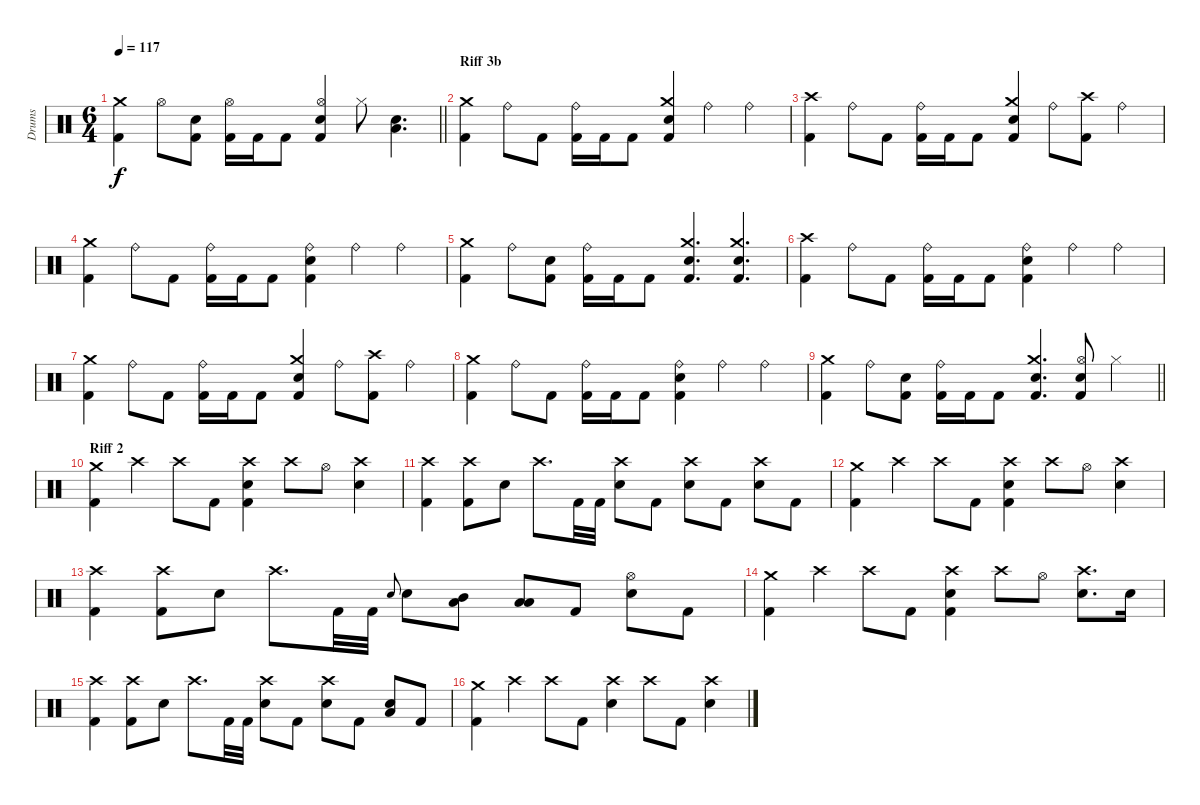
\track ("Drums" "Drums") {instrument percussion}
\staff {score}
\articulation defaults
\ts (6 4)
\tempo 117
\clef neutral
\barLineRight lightlight
\ks c
("Kick (hit) 2" "Crash medium (hit)").4{dy f} "Hi-Hat (open)".8 ("Electric Snare (hit)" "Kick (hit) 2").8 ("Hi-Hat (open)" "Kick (hit) 2").16 "Kick (hit) 2".16 "Kick (hit) 2".8 ("Hi-Hat (open)" "Kick (hit) 2" "Electric Snare (hit)").4 "Hi-Hat (closed)".8 ("Electric Snare (hit)" "Low Floor Tom (hit)").4{d} |
\section ("" "Riff 3b")
("Kick (hit) 2" "Crash medium (hit)").4 "Ride (bell)".8 "Kick (hit) 2".8 ("Ride (bell)" "Kick (hit) 2").16 "Kick (hit) 2".16 "Kick (hit) 2".8 ("Electric Snare (hit)" "Kick (hit) 2" "Crash medium (hit)").4 "Ride (bell)".4 "Ride (bell)".4 |
("Kick (hit) 2" "Crash high (hit)").4 "Ride (bell)".8 "Kick (hit) 2".8 ("Ride (bell)" "Kick (hit) 2").16 "Kick (hit) 2".16 "Kick (hit) 2".8 ("Crash medium (hit)" "Kick (hit) 2" "Electric Snare (hit)").4 "Ride (bell)".8 ("Kick (hit) 2" "Crash high (hit)").8 "Ride (bell)".4 |
("Kick (hit) 2" "Crash medium (hit)").4 "Ride (bell)".8 "Kick (hit) 2".8 ("Ride (bell)" "Kick (hit) 2").16 "Kick (hit) 2".16 "Kick (hit) 2".8 ("Electric Snare (hit)" "Kick (hit) 2" "Ride (bell)").4 "Ride (bell)".4 "Ride (bell)".4 |
("Kick (hit) 2" "Crash medium (hit)").4 "Ride (bell)".8 ("Electric Snare (hit)" "Kick (hit) 2").8 ("Ride (bell)" "Kick (hit) 2").16 "Kick (hit) 2".16 "Kick (hit) 2".8 ("Crash medium (hit)" "Kick (hit) 2" "Electric Snare (hit)").4{d} ("Crash medium (hit)" "Kick (hit) 2" "Electric Snare (hit)").4{d} |
("Kick (hit) 2" "Crash high (hit)").4 "Ride (bell)".8 "Kick (hit) 2".8 ("Ride (bell)" "Kick (hit) 2").16 "Kick (hit) 2".16 "Kick (hit) 2".8 ("Electric Snare (hit)" "Kick (hit) 2" "Ride (bell)").4 "Ride (bell)".4 "Ride (bell)".4 |
("Kick (hit) 2" "Crash medium (hit)").4 "Ride (bell)".8 "Kick (hit) 2".8 ("Ride (bell)" "Kick (hit) 2").16 "Kick (hit) 2".16 "Kick (hit) 2".8 ("Crash medium (hit)" "Kick (hit) 2" "Electric Snare (hit)").4 "Ride (bell)".8 ("Kick (hit) 2" "Crash high (hit)").8 "Ride (bell)".4 |
("Kick (hit) 2" "Crash medium (hit)").4 "Ride (bell)".8 "Kick (hit) 2".8 ("Ride (bell)" "Kick (hit) 2").16 "Kick (hit) 2".16 "Kick (hit) 2".8 ("Electric Snare (hit)" "Kick (hit) 2" "Ride (bell)").4 "Ride (bell)".4 "Ride (bell)".4 |
\barLineRight lightlight
("Kick (hit) 2" "Crash medium (hit)").4 "Ride (bell)".8 ("Electric Snare (hit)" "Kick (hit) 2").8 ("Ride (bell)" "Kick (hit) 2").16 "Kick (hit) 2".16 "Kick (hit) 2".8 ("Kick (hit) 2" "Crash medium (hit)" "Electric Snare (hit)").4{d} ("Electric Snare (hit)" "Kick (hit) 2" "Hi-Hat (open)").8 "Hi-Hat (closed)".4 |
\section ("" "Riff 2")
("Kick (hit) 2" "Crash medium (hit)").4 "Crash high (hit)".4 "Crash high (hit)".8 "Kick (hit) 2".8 ("Crash high (hit)" "Kick (hit) 2" "Electric Snare (hit)").4 "Crash high (hit)".8 "Hi-Hat (open)".8 ("Electric Snare (hit)" "Crash high (hit)").4 |
("Kick (hit) 2" "Crash high (hit)").4 ("Kick (hit) 2" "Crash high (hit)").8 "Electric Snare (hit)".8 "Crash high (hit)".8{d} "Kick (hit) 2".32 "Kick (hit) 2".32 ("Electric Snare (hit)" "Crash high (hit)").8 "Kick (hit) 2".8 ("Electric Snare (hit)" "Crash high (hit)").8 "Kick (hit) 2".8 ("Electric Snare (hit)" "Crash high (hit)").8 "Kick (hit) 2".8 |
("Kick (hit) 2" "Crash medium (hit)").4 "Crash high (hit)".4 "Crash high (hit)".8 "Kick (hit) 2".8 ("Crash high (hit)" "Kick (hit) 2" "Electric Snare (hit)").4 "Crash high (hit)".8 "Hi-Hat (open)".8 ("Electric Snare (hit)" "Crash high (hit)").4 |
("Kick (hit) 2" "Crash high (hit)").4 ("Kick (hit) 2" "Crash high (hit)").8 "Electric Snare (hit)".8 "Crash high (hit)".8{d} "Kick (hit) 2".32 "Kick (hit) 2".32 "Electric Snare (hit)".8{gr onbeat} "Electric Snare (hit)".8 ("Mid Tom (hit)" "Low Floor Tom (hit)").8 ("Low Tom (hit)" "Low Floor Tom (hit)").8 "Kick (hit) 2".8 ("Electric Snare (hit)" "Hi-Hat (open)").8 "Kick (hit) 2".8 |
("Kick (hit) 2" "Crash medium (hit)").4 "Crash high (hit)".4 "Crash high (hit)".8 "Kick (hit) 2".8 ("Crash high (hit)" "Kick (hit) 2" "Electric Snare (hit)").4 "Crash high (hit)".8 "Hi-Hat (open)".8 ("Electric Snare (hit)" "Crash high (hit)").8{d} "Electric Snare (hit)".16 |
("Kick (hit) 2" "Crash high (hit)").4 ("Kick (hit) 2" "Crash high (hit)").8 "Electric Snare (hit)".8 "Crash high (hit)".8{d} "Kick (hit) 2".32 "Kick (hit) 2".32 ("Electric Snare (hit)" "Crash high (hit)").8 "Kick (hit) 2".8 ("Electric Snare (hit)" "Crash high (hit)").8 "Kick (hit) 2".8 ("Electric Snare (hit)" "Low Floor Tom (hit)").8 "Kick (hit) 2".8 |
("Kick (hit) 2" "Crash medium (hit)").4 "Crash high (hit)".4 "Crash high (hit)".8 "Kick (hit) 2".8 ("Crash high (hit)" "Electric Snare (hit)").4 "Crash high (hit)".8 "Kick (hit) 2".8 ("Electric Snare (hit)" "Crash high (hit)").4
